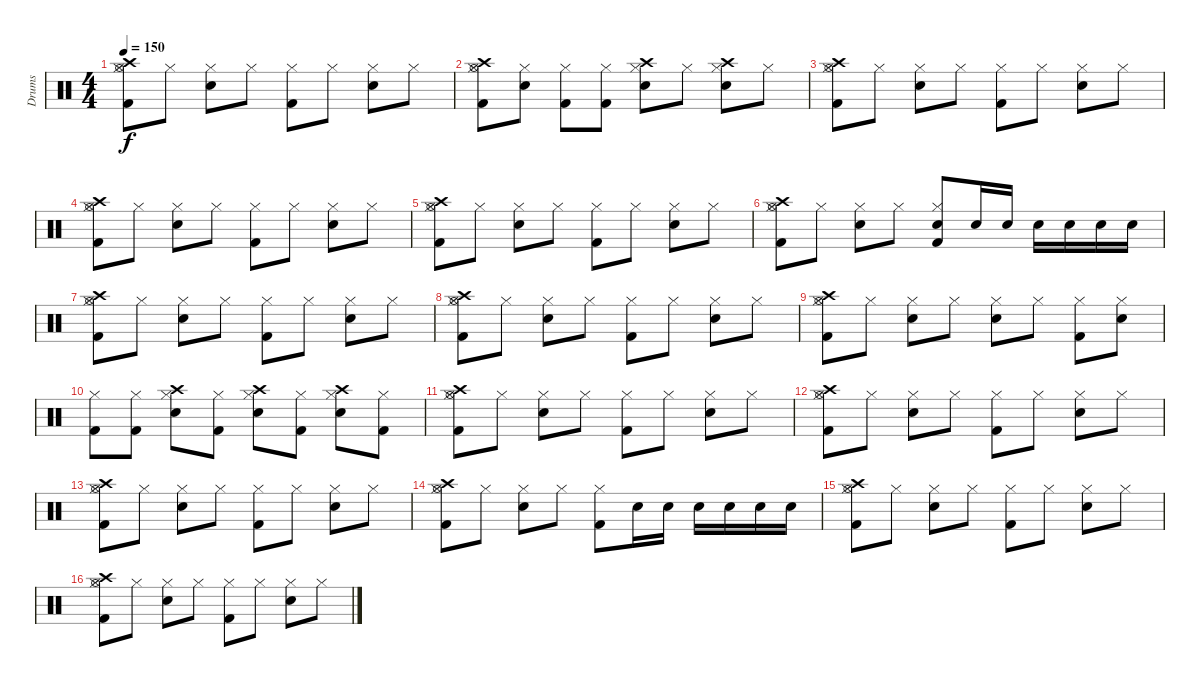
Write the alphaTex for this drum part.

\track ("Drums" "Drums") {instrument percussion}
\staff {score}
\articulation defaults
\ts (4 4)
\tempo 150
\clef neutral
\ks c
("Kick (hit) 2" "Hi-Hat (closed)" "Crash high (hit)" "Hi-Hat (open)").8{dy f} "Hi-Hat (closed)".8 ("Snare (hit) 2" "Hi-Hat (closed)").8 "Hi-Hat (closed)".8 ("Kick (hit) 2" "Hi-Hat (closed)").8 "Hi-Hat (closed)".8 ("Snare (hit) 2" "Hi-Hat (closed)").8 "Hi-Hat (closed)".8 |
("Kick (hit) 2" "Hi-Hat (closed)" "Crash high (hit)" "Hi-Hat (open)").8 ("Snare (hit) 2" "Hi-Hat (closed)").8 ("Kick (hit) 2" "Hi-Hat (closed)").8 ("Kick (hit) 2" "Hi-Hat (closed)").8 ("Snare (hit) 2" "Hi-Hat (closed)" "Crash high (hit)").8 "Hi-Hat (closed)".8 ("Snare (hit) 2" "Hi-Hat (closed)" "Crash high (hit)").8 "Hi-Hat (closed)".8 |
("Kick (hit) 2" "Hi-Hat (closed)" "Crash high (hit)" "Hi-Hat (open)").8 "Hi-Hat (closed)".8 ("Snare (hit) 2" "Hi-Hat (closed)").8 "Hi-Hat (closed)".8 ("Kick (hit) 2" "Hi-Hat (closed)").8 "Hi-Hat (closed)".8 ("Snare (hit) 2" "Hi-Hat (closed)").8 "Hi-Hat (closed)".8 |
("Kick (hit) 2" "Hi-Hat (closed)" "Crash high (hit)" "Hi-Hat (open)").8 "Hi-Hat (closed)".8 ("Snare (hit) 2" "Hi-Hat (closed)").8 "Hi-Hat (closed)".8 ("Kick (hit) 2" "Hi-Hat (closed)").8 "Hi-Hat (closed)".8 ("Snare (hit) 2" "Hi-Hat (closed)").8 "Hi-Hat (closed)".8 |
("Kick (hit) 2" "Hi-Hat (closed)" "Crash high (hit)" "Hi-Hat (open)").8 "Hi-Hat (closed)".8 ("Snare (hit) 2" "Hi-Hat (closed)").8 "Hi-Hat (closed)".8 ("Kick (hit) 2" "Hi-Hat (closed)").8 "Hi-Hat (closed)".8 ("Snare (hit) 2" "Hi-Hat (closed)").8 "Hi-Hat (closed)".8 |
("Kick (hit) 2" "Hi-Hat (closed)" "Crash high (hit)" "Hi-Hat (open)").8 "Hi-Hat (closed)".8 ("Snare (hit) 2" "Hi-Hat (closed)").8 "Hi-Hat (closed)".8 ("Kick (hit) 2" "Hi-Hat (closed)" "Snare (hit) 2").8 "Snare (hit) 2".16 "Snare (hit) 2".16 "Snare (hit) 2".16 "Snare (hit) 2".16 "Snare (hit) 2".16 "Snare (hit) 2".16 |
("Kick (hit) 2" "Hi-Hat (closed)" "Crash high (hit)" "Hi-Hat (open)").8 "Hi-Hat (closed)".8 ("Snare (hit) 2" "Hi-Hat (closed)").8 "Hi-Hat (closed)".8 ("Kick (hit) 2" "Hi-Hat (closed)").8 "Hi-Hat (closed)".8 ("Snare (hit) 2" "Hi-Hat (closed)").8 "Hi-Hat (closed)".8 |
("Kick (hit) 2" "Hi-Hat (closed)" "Crash high (hit)" "Hi-Hat (open)").8 "Hi-Hat (closed)".8 ("Snare (hit) 2" "Hi-Hat (closed)").8 "Hi-Hat (closed)".8 ("Kick (hit) 2" "Hi-Hat (closed)").8 "Hi-Hat (closed)".8 ("Snare (hit) 2" "Hi-Hat (closed)").8 "Hi-Hat (closed)".8 |
("Kick (hit) 2" "Hi-Hat (closed)" "Crash high (hit)" "Hi-Hat (open)").8 "Hi-Hat (closed)".8 ("Snare (hit) 2" "Hi-Hat (closed)").8 "Hi-Hat (closed)".8 ("Snare (hit) 2" "Hi-Hat (closed)").8 "Hi-Hat (closed)".8 ("Kick (hit) 2" "Hi-Hat (closed)").8 ("Snare (hit) 2" "Hi-Hat (closed)").8 |
("Kick (hit) 2" "Hi-Hat (closed)").8 ("Kick (hit) 2" "Hi-Hat (closed)").8 ("Snare (hit) 2" "Hi-Hat (closed)" "Crash high (hit)").8 ("Hi-Hat (closed)" "Kick (hit) 2").8 ("Snare (hit) 2" "Hi-Hat (closed)" "Crash high (hit)").8 ("Hi-Hat (closed)" "Kick (hit) 2").8 ("Snare (hit) 2" "Hi-Hat (closed)" "Crash high (hit)").8 ("Hi-Hat (closed)" "Kick (hit) 2").8 |
("Kick (hit) 2" "Hi-Hat (closed)" "Crash high (hit)" "Hi-Hat (open)").8 "Hi-Hat (closed)".8 ("Snare (hit) 2" "Hi-Hat (closed)").8 "Hi-Hat (closed)".8 ("Kick (hit) 2" "Hi-Hat (closed)").8 "Hi-Hat (closed)".8 ("Snare (hit) 2" "Hi-Hat (closed)").8 "Hi-Hat (closed)".8 |
("Kick (hit) 2" "Hi-Hat (closed)" "Crash high (hit)" "Hi-Hat (open)").8 "Hi-Hat (closed)".8 ("Snare (hit) 2" "Hi-Hat (closed)").8 "Hi-Hat (closed)".8 ("Kick (hit) 2" "Hi-Hat (closed)").8 "Hi-Hat (closed)".8 ("Snare (hit) 2" "Hi-Hat (closed)").8 "Hi-Hat (closed)".8 |
("Kick (hit) 2" "Hi-Hat (closed)" "Crash high (hit)" "Hi-Hat (open)").8 "Hi-Hat (closed)".8 ("Snare (hit) 2" "Hi-Hat (closed)").8 "Hi-Hat (closed)".8 ("Kick (hit) 2" "Hi-Hat (closed)").8 "Hi-Hat (closed)".8 ("Snare (hit) 2" "Hi-Hat (closed)").8 "Hi-Hat (closed)".8 |
("Kick (hit) 2" "Hi-Hat (closed)" "Crash high (hit)" "Hi-Hat (open)").8 "Hi-Hat (closed)".8 ("Snare (hit) 2" "Hi-Hat (closed)").8 "Hi-Hat (closed)".8 ("Kick (hit) 2" "Hi-Hat (closed)").8 "Snare (hit) 2".16 "Snare (hit) 2".16 "Snare (hit) 2".16 "Snare (hit) 2".16 "Snare (hit) 2".16 "Snare (hit) 2".16 |
("Kick (hit) 2" "Hi-Hat (closed)" "Crash high (hit)" "Hi-Hat (open)").8 "Hi-Hat (closed)".8 ("Snare (hit) 2" "Hi-Hat (closed)").8 "Hi-Hat (closed)".8 ("Kick (hit) 2" "Hi-Hat (closed)").8 "Hi-Hat (closed)".8 ("Snare (hit) 2" "Hi-Hat (closed)").8 "Hi-Hat (closed)".8 |
("Kick (hit) 2" "Hi-Hat (closed)" "Crash high (hit)" "Hi-Hat (open)").8 "Hi-Hat (closed)".8 ("Snare (hit) 2" "Hi-Hat (closed)").8 "Hi-Hat (closed)".8 ("Kick (hit) 2" "Hi-Hat (closed)").8 "Hi-Hat (closed)".8 ("Snare (hit) 2" "Hi-Hat (closed)").8 "Hi-Hat (closed)".8
